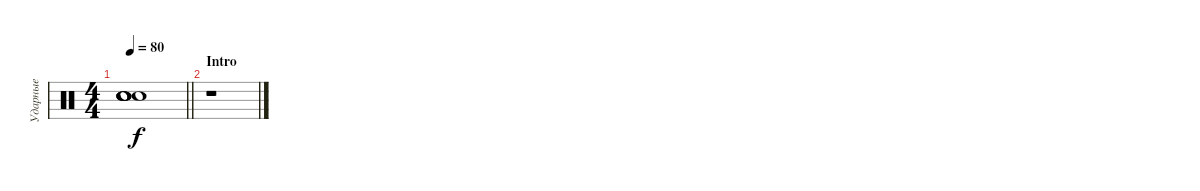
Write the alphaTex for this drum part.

\track ("Ударные" "Ударные") {instrument percussion}
\staff {score}
\articulation defaults
\ts (4 4)
\tempo 80
\clef neutral
\barLineRight lightlight
\ks c
("Snare (hit)" "Snare (hit)" "Snare (hit)" "Snare (hit)" "Snare (hit)").1{dy f} |
\section ("" "Intro")
r.1
